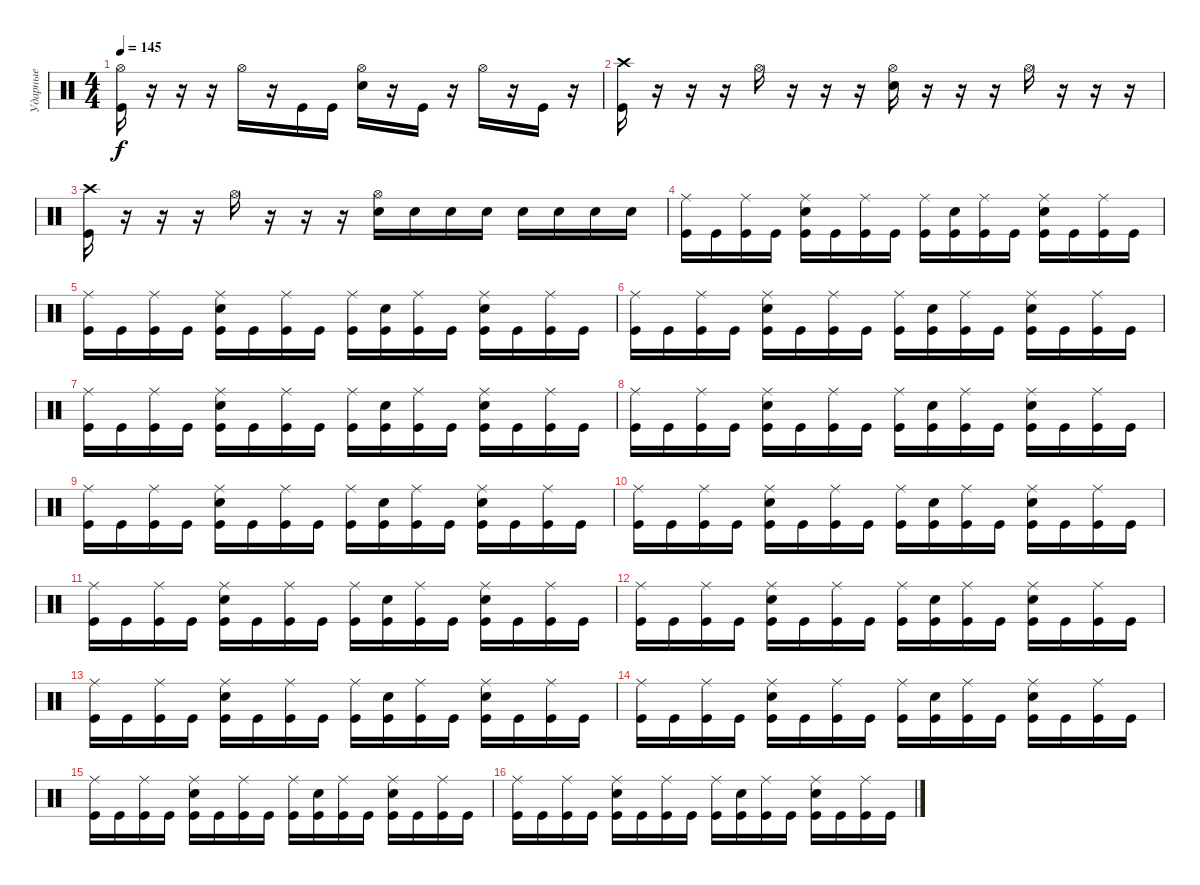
\track ("Ударные" "Ударные") {instrument percussion}
\staff {score}
\articulation defaults
\ts (4 4)
\tempo 145
\clef neutral
\ks c
("Hi-Hat (open)" "Kick (hit)").16{dy f} r.16 r.16 r.16 "Hi-Hat (open)".16 r.16 "Kick (hit)".16 "Kick (hit)".16 ("Hi-Hat (open)" "Snare (hit) 2").16 r.16 "Kick (hit)".16 r.16 "Hi-Hat (open)".16 r.16 "Kick (hit)".16 r.16 |
("Crash high (hit)" "Kick (hit)").16 r.16 r.16 r.16 "Hi-Hat (open)".16 r.16 r.16 r.16 ("Hi-Hat (open)" "Snare (hit) 2").16 r.16 r.16 r.16 "Hi-Hat (open)".16 r.16 r.16 r.16 |
("Crash high (hit)" "Kick (hit)").16 r.16 r.16 r.16 "Hi-Hat (open)".16 r.16 r.16 r.16 ("Hi-Hat (open)" "Snare (hit) 2").16 "Snare (hit) 2".16 "Snare (hit) 2".16 "Snare (hit) 2".16 "Snare (hit) 2".16 "Snare (hit) 2".16 "Snare (hit) 2".16 "Snare (hit) 2".16 |
("Ride (middle)" "Kick (hit)").16 "Kick (hit)".16 ("Ride (middle)" "Kick (hit)").16 "Kick (hit)".16 ("Ride (middle)" "Snare (hit) 2" "Kick (hit)").16 "Kick (hit)".16 ("Ride (middle)" "Kick (hit)").16 "Kick (hit)".16 ("Ride (middle)" "Kick (hit)").16 ("Snare (hit) 2" "Kick (hit)").16 ("Ride (middle)" "Kick (hit)").16 "Kick (hit)".16 ("Ride (middle)" "Snare (hit) 2" "Kick (hit)").16 "Kick (hit)".16 ("Ride (middle)" "Kick (hit)").16 "Kick (hit)".16 |
("Ride (middle)" "Kick (hit)").16 "Kick (hit)".16 ("Ride (middle)" "Kick (hit)").16 "Kick (hit)".16 ("Ride (middle)" "Snare (hit) 2" "Kick (hit)").16 "Kick (hit)".16 ("Ride (middle)" "Kick (hit)").16 "Kick (hit)".16 ("Ride (middle)" "Kick (hit)").16 ("Snare (hit) 2" "Kick (hit)").16 ("Ride (middle)" "Kick (hit)").16 "Kick (hit)".16 ("Ride (middle)" "Snare (hit) 2" "Kick (hit)").16 "Kick (hit)".16 ("Ride (middle)" "Kick (hit)").16 "Kick (hit)".16 |
("Ride (middle)" "Kick (hit)").16 "Kick (hit)".16 ("Ride (middle)" "Kick (hit)").16 "Kick (hit)".16 ("Ride (middle)" "Snare (hit) 2" "Kick (hit)").16 "Kick (hit)".16 ("Ride (middle)" "Kick (hit)").16 "Kick (hit)".16 ("Ride (middle)" "Kick (hit)").16 ("Snare (hit) 2" "Kick (hit)").16 ("Ride (middle)" "Kick (hit)").16 "Kick (hit)".16 ("Ride (middle)" "Snare (hit) 2" "Kick (hit)").16 "Kick (hit)".16 ("Ride (middle)" "Kick (hit)").16 "Kick (hit)".16 |
("Ride (middle)" "Kick (hit)").16 "Kick (hit)".16 ("Ride (middle)" "Kick (hit)").16 "Kick (hit)".16 ("Ride (middle)" "Snare (hit) 2" "Kick (hit)").16 "Kick (hit)".16 ("Ride (middle)" "Kick (hit)").16 "Kick (hit)".16 ("Ride (middle)" "Kick (hit)").16 ("Snare (hit) 2" "Kick (hit)").16 ("Ride (middle)" "Kick (hit)").16 "Kick (hit)".16 ("Ride (middle)" "Snare (hit) 2" "Kick (hit)").16 "Kick (hit)".16 ("Ride (middle)" "Kick (hit)").16 "Kick (hit)".16 |
("Ride (middle)" "Kick (hit)").16 "Kick (hit)".16 ("Ride (middle)" "Kick (hit)").16 "Kick (hit)".16 ("Ride (middle)" "Snare (hit) 2" "Kick (hit)").16 "Kick (hit)".16 ("Ride (middle)" "Kick (hit)").16 "Kick (hit)".16 ("Ride (middle)" "Kick (hit)").16 ("Snare (hit) 2" "Kick (hit)").16 ("Ride (middle)" "Kick (hit)").16 "Kick (hit)".16 ("Ride (middle)" "Snare (hit) 2" "Kick (hit)").16 "Kick (hit)".16 ("Ride (middle)" "Kick (hit)").16 "Kick (hit)".16 |
("Ride (middle)" "Kick (hit)").16 "Kick (hit)".16 ("Ride (middle)" "Kick (hit)").16 "Kick (hit)".16 ("Ride (middle)" "Snare (hit) 2" "Kick (hit)").16 "Kick (hit)".16 ("Ride (middle)" "Kick (hit)").16 "Kick (hit)".16 ("Ride (middle)" "Kick (hit)").16 ("Snare (hit) 2" "Kick (hit)").16 ("Ride (middle)" "Kick (hit)").16 "Kick (hit)".16 ("Ride (middle)" "Snare (hit) 2" "Kick (hit)").16 "Kick (hit)".16 ("Ride (middle)" "Kick (hit)").16 "Kick (hit)".16 |
("Ride (middle)" "Kick (hit)").16 "Kick (hit)".16 ("Ride (middle)" "Kick (hit)").16 "Kick (hit)".16 ("Ride (middle)" "Snare (hit) 2" "Kick (hit)").16 "Kick (hit)".16 ("Ride (middle)" "Kick (hit)").16 "Kick (hit)".16 ("Ride (middle)" "Kick (hit)").16 ("Snare (hit) 2" "Kick (hit)").16 ("Ride (middle)" "Kick (hit)").16 "Kick (hit)".16 ("Ride (middle)" "Snare (hit) 2" "Kick (hit)").16 "Kick (hit)".16 ("Ride (middle)" "Kick (hit)").16 "Kick (hit)".16 |
("Ride (middle)" "Kick (hit)").16 "Kick (hit)".16 ("Ride (middle)" "Kick (hit)").16 "Kick (hit)".16 ("Ride (middle)" "Snare (hit) 2" "Kick (hit)").16 "Kick (hit)".16 ("Ride (middle)" "Kick (hit)").16 "Kick (hit)".16 ("Ride (middle)" "Kick (hit)").16 ("Snare (hit) 2" "Kick (hit)").16 ("Ride (middle)" "Kick (hit)").16 "Kick (hit)".16 ("Ride (middle)" "Snare (hit) 2" "Kick (hit)").16 "Kick (hit)".16 ("Ride (middle)" "Kick (hit)").16 "Kick (hit)".16 |
("Ride (middle)" "Kick (hit)").16 "Kick (hit)".16 ("Ride (middle)" "Kick (hit)").16 "Kick (hit)".16 ("Ride (middle)" "Snare (hit) 2" "Kick (hit)").16 "Kick (hit)".16 ("Ride (middle)" "Kick (hit)").16 "Kick (hit)".16 ("Ride (middle)" "Kick (hit)").16 ("Snare (hit) 2" "Kick (hit)").16 ("Ride (middle)" "Kick (hit)").16 "Kick (hit)".16 ("Ride (middle)" "Snare (hit) 2" "Kick (hit)").16 "Kick (hit)".16 ("Ride (middle)" "Kick (hit)").16 "Kick (hit)".16 |
("Ride (middle)" "Kick (hit)").16 "Kick (hit)".16 ("Ride (middle)" "Kick (hit)").16 "Kick (hit)".16 ("Ride (middle)" "Snare (hit) 2" "Kick (hit)").16 "Kick (hit)".16 ("Ride (middle)" "Kick (hit)").16 "Kick (hit)".16 ("Ride (middle)" "Kick (hit)").16 ("Snare (hit) 2" "Kick (hit)").16 ("Ride (middle)" "Kick (hit)").16 "Kick (hit)".16 ("Ride (middle)" "Snare (hit) 2" "Kick (hit)").16 "Kick (hit)".16 ("Ride (middle)" "Kick (hit)").16 "Kick (hit)".16 |
("Ride (middle)" "Kick (hit)").16 "Kick (hit)".16 ("Ride (middle)" "Kick (hit)").16 "Kick (hit)".16 ("Ride (middle)" "Snare (hit) 2" "Kick (hit)").16 "Kick (hit)".16 ("Ride (middle)" "Kick (hit)").16 "Kick (hit)".16 ("Ride (middle)" "Kick (hit)").16 ("Snare (hit) 2" "Kick (hit)").16 ("Ride (middle)" "Kick (hit)").16 "Kick (hit)".16 ("Ride (middle)" "Snare (hit) 2" "Kick (hit)").16 "Kick (hit)".16 ("Ride (middle)" "Kick (hit)").16 "Kick (hit)".16 |
("Ride (middle)" "Kick (hit)").16 "Kick (hit)".16 ("Ride (middle)" "Kick (hit)").16 "Kick (hit)".16 ("Ride (middle)" "Snare (hit) 2" "Kick (hit)").16 "Kick (hit)".16 ("Ride (middle)" "Kick (hit)").16 "Kick (hit)".16 ("Ride (middle)" "Kick (hit)").16 ("Snare (hit) 2" "Kick (hit)").16 ("Ride (middle)" "Kick (hit)").16 "Kick (hit)".16 ("Ride (middle)" "Snare (hit) 2" "Kick (hit)").16 "Kick (hit)".16 ("Ride (middle)" "Kick (hit)").16 "Kick (hit)".16 |
("Ride (middle)" "Kick (hit)").16 "Kick (hit)".16 ("Ride (middle)" "Kick (hit)").16 "Kick (hit)".16 ("Ride (middle)" "Snare (hit) 2" "Kick (hit)").16 "Kick (hit)".16 ("Ride (middle)" "Kick (hit)").16 "Kick (hit)".16 ("Ride (middle)" "Kick (hit)").16 ("Snare (hit) 2" "Kick (hit)").16 ("Ride (middle)" "Kick (hit)").16 "Kick (hit)".16 ("Ride (middle)" "Snare (hit) 2" "Kick (hit)").16 "Kick (hit)".16 ("Ride (middle)" "Kick (hit)").16 "Kick (hit)".16
